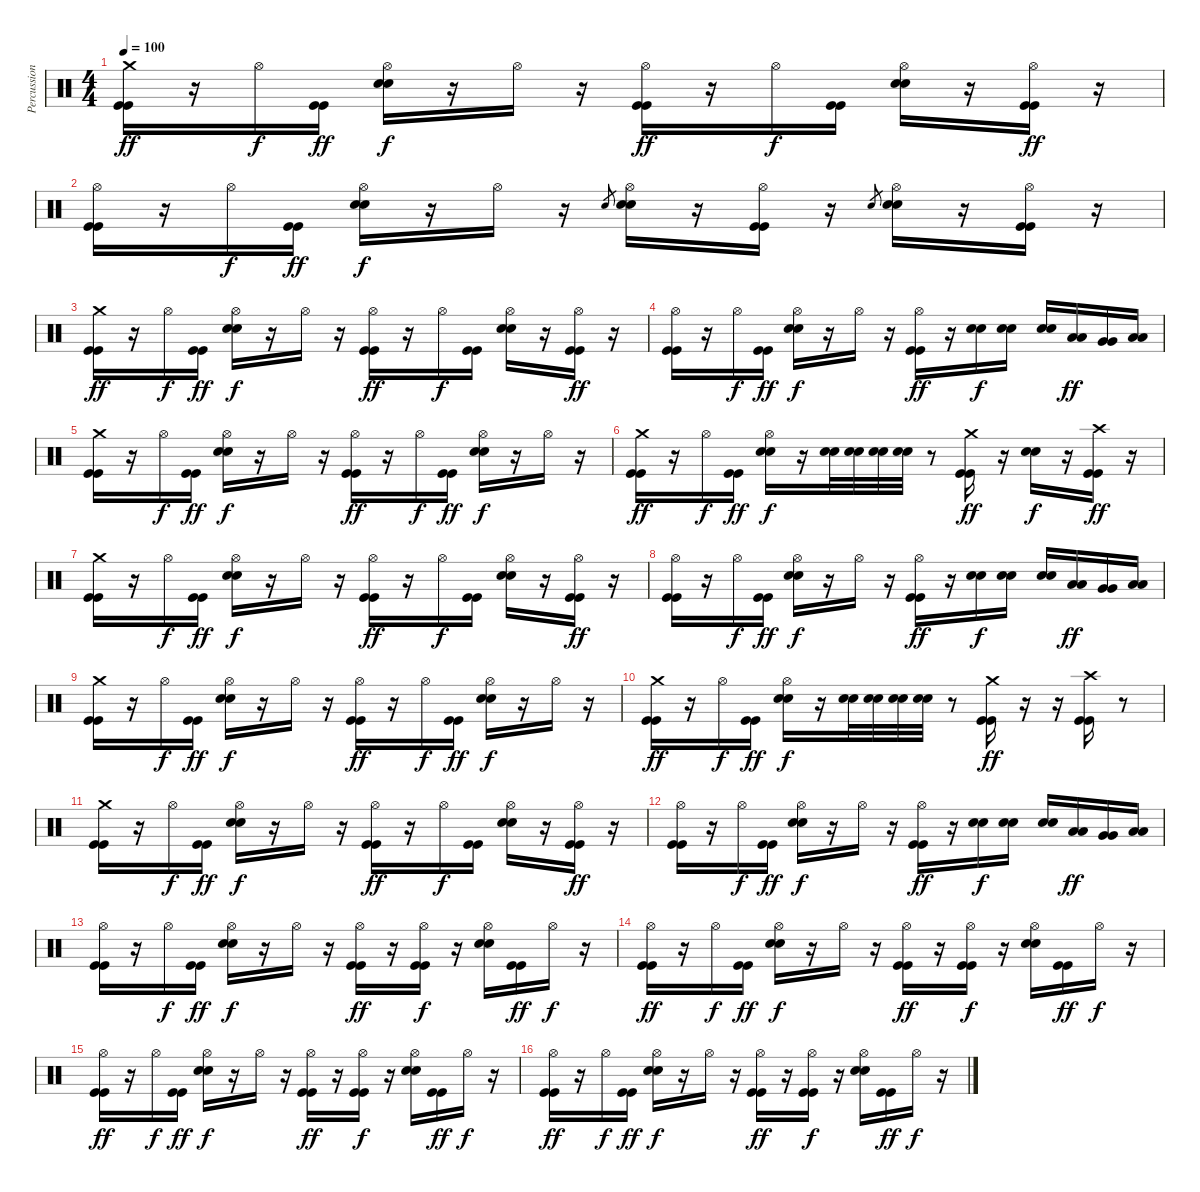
\track ("Percussions" "Percussion") {instrument percussion}
\staff
\articulation defaults
\ts (4 4)
\tempo 100
\clef neutral
\ks c
("Crash medium (hit)" "Kick (hit)" "Kick (hit)").16{dy ff} r.16 "Hi-Hat (open)".16{dy f} ("Kick (hit)" "Kick (hit)").16{dy ff} ("Hi-Hat (open)" "Electric Snare (hit)" "Electric Snare (hit)").16{dy f} r.16 "Hi-Hat (open)".16 r.16 ("Hi-Hat (open)" "Kick (hit)" "Kick (hit)").16{dy ff} r.16 "Hi-Hat (open)".16{dy f} ("Kick (hit)" "Kick (hit)").16 ("Hi-Hat (open)" "Electric Snare (hit)" "Electric Snare (hit)").16 r.16 ("Hi-Hat (open)" "Kick (hit)" "Kick (hit)").16{dy ff} r.16 |
("Hi-Hat (open)" "Kick (hit)" "Kick (hit)").16 r.16 "Hi-Hat (open)".16{dy f} ("Kick (hit)" "Kick (hit)").16{dy ff} ("Hi-Hat (open)" "Electric Snare (hit)" "Electric Snare (hit)").16{dy f} r.16 "Hi-Hat (open)".16 r.16 "Electric Snare (hit)".8{gr} ("Hi-Hat (open)" "Electric Snare (hit)" "Electric Snare (hit)").16 r.16 ("Hi-Hat (open)" "Kick (hit)" "Kick (hit)").16 r.16 "Electric Snare (hit)".8{gr} ("Hi-Hat (open)" "Electric Snare (hit)" "Electric Snare (hit)").16 r.16 ("Hi-Hat (open)" "Kick (hit)" "Kick (hit)").16 r.16 |
("Crash medium (hit)" "Kick (hit)" "Kick (hit)").16{dy ff} r.16 "Hi-Hat (open)".16{dy f} ("Kick (hit)" "Kick (hit)").16{dy ff} ("Hi-Hat (open)" "Electric Snare (hit)" "Electric Snare (hit)").16{dy f} r.16 "Hi-Hat (open)".16 r.16 ("Hi-Hat (open)" "Kick (hit)" "Kick (hit)").16{dy ff} r.16 "Hi-Hat (open)".16{dy f} ("Kick (hit)" "Kick (hit)").16 ("Hi-Hat (open)" "Electric Snare (hit)" "Electric Snare (hit)").16 r.16 ("Hi-Hat (open)" "Kick (hit)" "Kick (hit)").16{dy ff} r.16 |
("Hi-Hat (open)" "Kick (hit)" "Kick (hit)").16 r.16 "Hi-Hat (open)".16{dy f} ("Kick (hit)" "Kick (hit)").16{dy ff} ("Hi-Hat (open)" "Electric Snare (hit)" "Electric Snare (hit)").16{dy f} r.16 "Hi-Hat (open)".16 r.16 ("Hi-Hat (open)" "Kick (hit)" "Kick (hit)").16{dy ff} r.16 ("Electric Snare (hit)" "Electric Snare (hit)").16{dy f} ("Electric Snare (hit)" "Electric Snare (hit)").16 ("Electric Snare (hit)" "Electric Snare (hit)").16 ("Low Tom (hit)" "Low Tom (hit)").16{dy ff} ("Very Low Tom (hit)" "Very Low Tom (hit)").16 ("Low Floor Tom (hit)" "Low Floor Tom (hit)").16 |
("Crash medium (hit)" "Kick (hit)" "Kick (hit)").16 r.16 "Hi-Hat (open)".16{dy f} ("Kick (hit)" "Kick (hit)").16{dy ff} ("Hi-Hat (open)" "Electric Snare (hit)" "Electric Snare (hit)").16{dy f} r.16 "Hi-Hat (open)".16 r.16 ("Hi-Hat (open)" "Kick (hit)" "Kick (hit)").16{dy ff} r.16 "Hi-Hat (open)".16{dy f} ("Kick (hit)" "Kick (hit)").16{dy ff} ("Hi-Hat (open)" "Electric Snare (hit)" "Electric Snare (hit)").16{dy f} r.16 "Hi-Hat (open)".16 r.16 |
("Crash medium (hit)" "Kick (hit)" "Kick (hit)").16{dy ff} r.16 "Hi-Hat (open)".16{dy f} ("Kick (hit)" "Kick (hit)").16{dy ff} ("Hi-Hat (open)" "Electric Snare (hit)" "Electric Snare (hit)").16{dy f} r.16 ("Electric Snare (hit)" "Electric Snare (hit)").32 ("Electric Snare (hit)" "Electric Snare (hit)").32 ("Electric Snare (hit)" "Electric Snare (hit)").32 ("Electric Snare (hit)" "Electric Snare (hit)").32 r.8 ("Crash medium (hit)" "Kick (hit)" "Kick (hit)").16{dy ff} r.16 ("Electric Snare (hit)" "Electric Snare (hit)").16{dy f} r.16 ("Crash high (hit)" "Kick (hit)" "Kick (hit)").16{dy ff} r.16 |
("Crash medium (hit)" "Kick (hit)" "Kick (hit)").16 r.16 "Hi-Hat (open)".16{dy f} ("Kick (hit)" "Kick (hit)").16{dy ff} ("Hi-Hat (open)" "Electric Snare (hit)" "Electric Snare (hit)").16{dy f} r.16 "Hi-Hat (open)".16 r.16 ("Hi-Hat (open)" "Kick (hit)" "Kick (hit)").16{dy ff} r.16 "Hi-Hat (open)".16{dy f} ("Kick (hit)" "Kick (hit)").16 ("Hi-Hat (open)" "Electric Snare (hit)" "Electric Snare (hit)").16 r.16 ("Hi-Hat (open)" "Kick (hit)" "Kick (hit)").16{dy ff} r.16 |
("Hi-Hat (open)" "Kick (hit)" "Kick (hit)").16 r.16 "Hi-Hat (open)".16{dy f} ("Kick (hit)" "Kick (hit)").16{dy ff} ("Hi-Hat (open)" "Electric Snare (hit)" "Electric Snare (hit)").16{dy f} r.16 "Hi-Hat (open)".16 r.16 ("Hi-Hat (open)" "Kick (hit)" "Kick (hit)").16{dy ff} r.16 ("Electric Snare (hit)" "Electric Snare (hit)").16{dy f} ("Electric Snare (hit)" "Electric Snare (hit)").16 ("Electric Snare (hit)" "Electric Snare (hit)").16 ("Low Tom (hit)" "Low Tom (hit)").16{dy ff} ("Very Low Tom (hit)" "Very Low Tom (hit)").16 ("Low Floor Tom (hit)" "Low Floor Tom (hit)").16 |
("Crash medium (hit)" "Kick (hit)" "Kick (hit)").16 r.16 "Hi-Hat (open)".16{dy f} ("Kick (hit)" "Kick (hit)").16{dy ff} ("Hi-Hat (open)" "Electric Snare (hit)" "Electric Snare (hit)").16{dy f} r.16 "Hi-Hat (open)".16 r.16 ("Hi-Hat (open)" "Kick (hit)" "Kick (hit)").16{dy ff} r.16 "Hi-Hat (open)".16{dy f} ("Kick (hit)" "Kick (hit)").16{dy ff} ("Hi-Hat (open)" "Electric Snare (hit)" "Electric Snare (hit)").16{dy f} r.16 "Hi-Hat (open)".16 r.16 |
("Crash medium (hit)" "Kick (hit)" "Kick (hit)").16{dy ff} r.16 "Hi-Hat (open)".16{dy f} ("Kick (hit)" "Kick (hit)").16{dy ff} ("Hi-Hat (open)" "Electric Snare (hit)" "Electric Snare (hit)").16{dy f} r.16 ("Electric Snare (hit)" "Electric Snare (hit)").32 ("Electric Snare (hit)" "Electric Snare (hit)").32 ("Electric Snare (hit)" "Electric Snare (hit)").32 ("Electric Snare (hit)" "Electric Snare (hit)").32 r.8 ("Crash medium (hit)" "Kick (hit)" "Kick (hit)").16{dy ff} r.16 r.16 ("Crash high (hit)" "Kick (hit)" "Kick (hit)").16 r.8 |
("Crash medium (hit)" "Kick (hit)" "Kick (hit)").16 r.16 "Hi-Hat (open)".16{dy f} ("Kick (hit)" "Kick (hit)").16{dy ff} ("Hi-Hat (open)" "Electric Snare (hit)" "Electric Snare (hit)").16{dy f} r.16 "Hi-Hat (open)".16 r.16 ("Hi-Hat (open)" "Kick (hit)" "Kick (hit)").16{dy ff} r.16 "Hi-Hat (open)".16{dy f} ("Kick (hit)" "Kick (hit)").16 ("Hi-Hat (open)" "Electric Snare (hit)" "Electric Snare (hit)").16 r.16 ("Hi-Hat (open)" "Kick (hit)" "Kick (hit)").16{dy ff} r.16 |
("Hi-Hat (open)" "Kick (hit)" "Kick (hit)").16 r.16 "Hi-Hat (open)".16{dy f} ("Kick (hit)" "Kick (hit)").16{dy ff} ("Hi-Hat (open)" "Electric Snare (hit)" "Electric Snare (hit)").16{dy f} r.16 "Hi-Hat (open)".16 r.16 ("Hi-Hat (open)" "Kick (hit)" "Kick (hit)").16{dy ff} r.16 ("Electric Snare (hit)" "Electric Snare (hit)").16{dy f} ("Electric Snare (hit)" "Electric Snare (hit)").16 ("Electric Snare (hit)" "Electric Snare (hit)").16 ("Low Tom (hit)" "Low Tom (hit)").16{dy ff} ("Very Low Tom (hit)" "Very Low Tom (hit)").16 ("Low Floor Tom (hit)" "Low Floor Tom (hit)").16 |
("Hi-Hat (open)" "Kick (hit)" "Kick (hit)").16 r.16 "Hi-Hat (open)".16{dy f} ("Kick (hit)" "Kick (hit)").16{dy ff} ("Hi-Hat (open)" "Electric Snare (hit)" "Electric Snare (hit)").16{dy f} r.16 "Hi-Hat (open)".16 r.16 ("Hi-Hat (open)" "Kick (hit)" "Kick (hit)").16{dy ff} r.16 ("Hi-Hat (open)" "Kick (hit)" "Kick (hit)").16{dy f} r.16 ("Hi-Hat (open)" "Electric Snare (hit)" "Electric Snare (hit)").16 ("Kick (hit)" "Kick (hit)").16{dy ff} "Hi-Hat (open)".16{dy f} r.16 |
("Hi-Hat (open)" "Kick (hit)" "Kick (hit)").16{dy ff} r.16 "Hi-Hat (open)".16{dy f} ("Kick (hit)" "Kick (hit)").16{dy ff} ("Hi-Hat (open)" "Electric Snare (hit)" "Electric Snare (hit)").16{dy f} r.16 "Hi-Hat (open)".16 r.16 ("Hi-Hat (open)" "Kick (hit)" "Kick (hit)").16{dy ff} r.16 ("Hi-Hat (open)" "Kick (hit)" "Kick (hit)").16{dy f} r.16 ("Hi-Hat (open)" "Electric Snare (hit)" "Electric Snare (hit)").16 ("Kick (hit)" "Kick (hit)").16{dy ff} "Hi-Hat (open)".16{dy f} r.16 |
("Hi-Hat (open)" "Kick (hit)" "Kick (hit)").16{dy ff} r.16 "Hi-Hat (open)".16{dy f} ("Kick (hit)" "Kick (hit)").16{dy ff} ("Hi-Hat (open)" "Electric Snare (hit)" "Electric Snare (hit)").16{dy f} r.16 "Hi-Hat (open)".16 r.16 ("Hi-Hat (open)" "Kick (hit)" "Kick (hit)").16{dy ff} r.16 ("Hi-Hat (open)" "Kick (hit)" "Kick (hit)").16{dy f} r.16 ("Hi-Hat (open)" "Electric Snare (hit)" "Electric Snare (hit)").16 ("Kick (hit)" "Kick (hit)").16{dy ff} "Hi-Hat (open)".16{dy f} r.16 |
("Hi-Hat (open)" "Kick (hit)" "Kick (hit)").16{dy ff} r.16 "Hi-Hat (open)".16{dy f} ("Kick (hit)" "Kick (hit)").16{dy ff} ("Hi-Hat (open)" "Electric Snare (hit)" "Electric Snare (hit)").16{dy f} r.16 "Hi-Hat (open)".16 r.16 ("Hi-Hat (open)" "Kick (hit)" "Kick (hit)").16{dy ff} r.16 ("Hi-Hat (open)" "Kick (hit)" "Kick (hit)").16{dy f} r.16 ("Hi-Hat (open)" "Electric Snare (hit)" "Electric Snare (hit)").16 ("Kick (hit)" "Kick (hit)").16{dy ff} "Hi-Hat (open)".16{dy f} r.16
